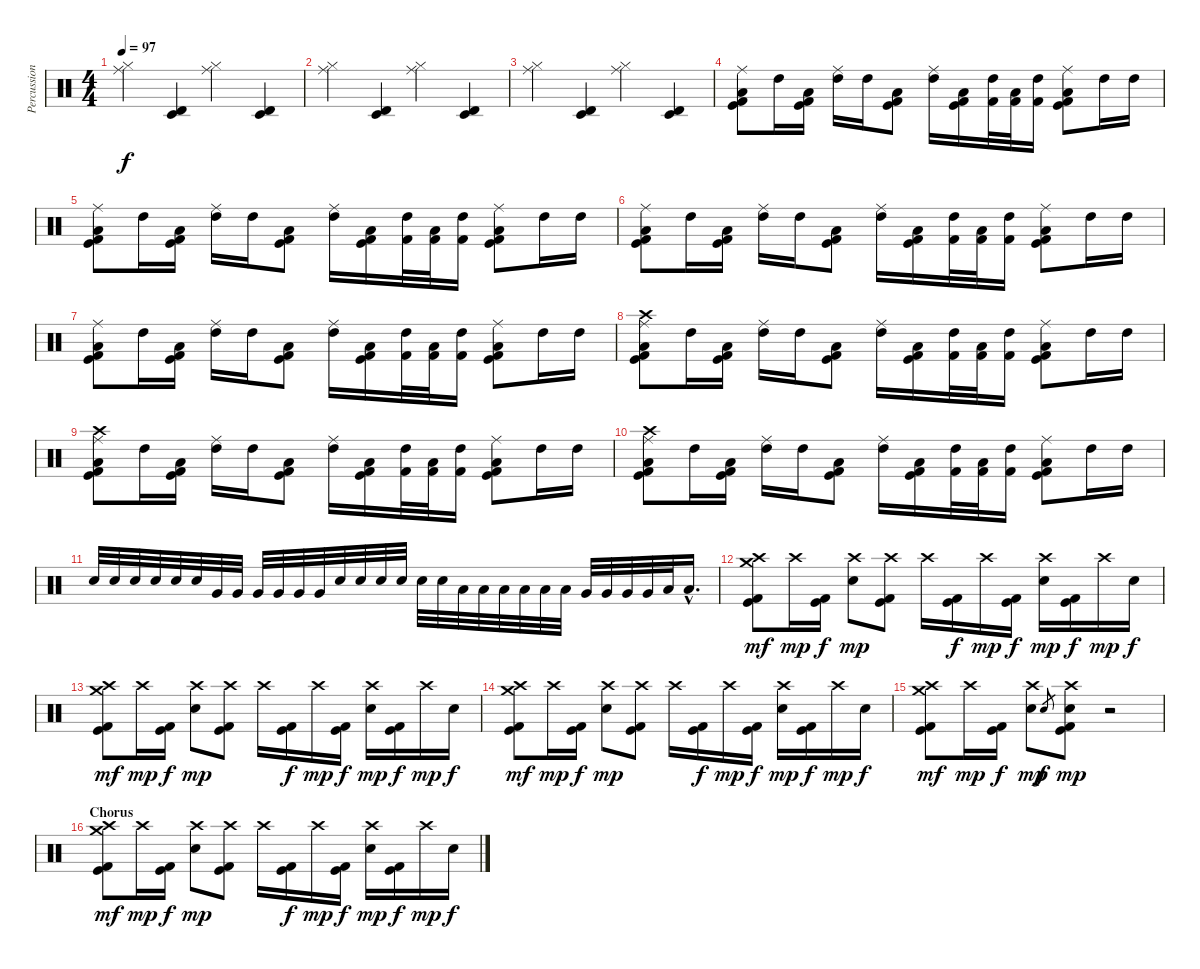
\track ("Percussion - Skinny" "Percussion") {instrument percussion}
\staff {score}
\articulation defaults
\ts (4 4)
\tempo 97
\clef neutral
\ks c
("Ride (middle)" "Hi-Hat (closed)").4{dy f} ("Timbale high (hit)" "Timbale low (hit)").4 ("Ride (middle)" "Hi-Hat (closed)").4 ("Timbale high (hit)" "Timbale low (hit)").4 |
("Ride (middle)" "Hi-Hat (closed)").4 ("Timbale high (hit)" "Timbale low (hit)").4 ("Ride (middle)" "Hi-Hat (closed)").4 ("Timbale high (hit)" "Timbale low (hit)").4 |
("Ride (middle)" "Hi-Hat (closed)").4 ("Timbale high (hit)" "Timbale low (hit)").4 ("Ride (middle)" "Hi-Hat (closed)").4 ("Timbale high (hit)" "Timbale low (hit)").4 |
("Ride (middle)" "Low Floor Tom (hit)" "Kick (hit) 2" "Kick (hit)").8 "High Tom (hit)".16 ("Low Floor Tom (hit)" "Kick (hit) 2" "Kick (hit)").16 ("Ride (middle)" "High Tom (hit)").16 "High Tom (hit)".16 ("Low Floor Tom (hit)" "Kick (hit) 2" "Kick (hit)").8 ("Ride (middle)" "High Tom (hit)").16 ("Low Floor Tom (hit)" "Kick (hit) 2" "Kick (hit)").16 ("High Tom (hit)" "Kick (hit) 2").32 ("Low Floor Tom (hit)" "Kick (hit) 2").32 ("High Tom (hit)" "Kick (hit) 2").16 ("Ride (middle)" "Low Floor Tom (hit)" "Kick (hit) 2" "Kick (hit)").8 "High Tom (hit)".16 "High Tom (hit)".16 |
("Ride (middle)" "Low Floor Tom (hit)" "Kick (hit) 2" "Kick (hit)").8 "High Tom (hit)".16 ("Low Floor Tom (hit)" "Kick (hit) 2" "Kick (hit)").16 ("Ride (middle)" "High Tom (hit)").16 "High Tom (hit)".16 ("Low Floor Tom (hit)" "Kick (hit) 2" "Kick (hit)").8 ("Ride (middle)" "High Tom (hit)").16 ("Low Floor Tom (hit)" "Kick (hit) 2" "Kick (hit)").16 ("High Tom (hit)" "Kick (hit) 2").32 ("Low Floor Tom (hit)" "Kick (hit) 2").32 ("High Tom (hit)" "Kick (hit) 2").16 ("Ride (middle)" "Low Floor Tom (hit)" "Kick (hit) 2" "Kick (hit)").8 "High Tom (hit)".16 "High Tom (hit)".16 |
("Ride (middle)" "Low Floor Tom (hit)" "Kick (hit) 2" "Kick (hit)").8 "High Tom (hit)".16 ("Low Floor Tom (hit)" "Kick (hit) 2" "Kick (hit)").16 ("Ride (middle)" "High Tom (hit)").16 "High Tom (hit)".16 ("Low Floor Tom (hit)" "Kick (hit) 2" "Kick (hit)").8 ("Ride (middle)" "High Tom (hit)").16 ("Low Floor Tom (hit)" "Kick (hit) 2" "Kick (hit)").16 ("High Tom (hit)" "Kick (hit) 2").32 ("Low Floor Tom (hit)" "Kick (hit) 2").32 ("High Tom (hit)" "Kick (hit) 2").16 ("Ride (middle)" "Low Floor Tom (hit)" "Kick (hit) 2" "Kick (hit)").8 "High Tom (hit)".16 "High Tom (hit)".16 |
("Ride (middle)" "Low Floor Tom (hit)" "Kick (hit) 2" "Kick (hit)").8 "High Tom (hit)".16 ("Low Floor Tom (hit)" "Kick (hit) 2" "Kick (hit)").16 ("Ride (middle)" "High Tom (hit)").16 "High Tom (hit)".16 ("Low Floor Tom (hit)" "Kick (hit) 2" "Kick (hit)").8 ("Ride (middle)" "High Tom (hit)").16 ("Low Floor Tom (hit)" "Kick (hit) 2" "Kick (hit)").16 ("High Tom (hit)" "Kick (hit) 2").32 ("Low Floor Tom (hit)" "Kick (hit) 2").32 ("High Tom (hit)" "Kick (hit) 2").16 ("Ride (middle)" "Low Floor Tom (hit)" "Kick (hit) 2" "Kick (hit)").8 "High Tom (hit)".16 "High Tom (hit)".16 |
("Ride (middle)" "Crash high (hit)" "Low Floor Tom (hit)" "Kick (hit) 2" "Kick (hit)").8 "High Tom (hit)".16 ("Low Floor Tom (hit)" "Kick (hit) 2" "Kick (hit)").16 ("Ride (middle)" "High Tom (hit)").16 "High Tom (hit)".16 ("Low Floor Tom (hit)" "Kick (hit) 2" "Kick (hit)").8 ("Ride (middle)" "High Tom (hit)").16 ("Low Floor Tom (hit)" "Kick (hit) 2" "Kick (hit)").16 ("High Tom (hit)" "Kick (hit) 2").32 ("Low Floor Tom (hit)" "Kick (hit) 2").32 ("High Tom (hit)" "Kick (hit) 2").16 ("Ride (middle)" "Low Floor Tom (hit)" "Kick (hit) 2" "Kick (hit)").8 "High Tom (hit)".16 "High Tom (hit)".16 |
("Ride (middle)" "Crash high (hit)" "Low Floor Tom (hit)" "Kick (hit) 2" "Kick (hit)").8 "High Tom (hit)".16 ("Low Floor Tom (hit)" "Kick (hit) 2" "Kick (hit)").16 ("Ride (middle)" "High Tom (hit)").16 "High Tom (hit)".16 ("Low Floor Tom (hit)" "Kick (hit) 2" "Kick (hit)").8 ("Ride (middle)" "High Tom (hit)").16 ("Low Floor Tom (hit)" "Kick (hit) 2" "Kick (hit)").16 ("High Tom (hit)" "Kick (hit) 2").32 ("Low Floor Tom (hit)" "Kick (hit) 2").32 ("High Tom (hit)" "Kick (hit) 2").16 ("Ride (middle)" "Low Floor Tom (hit)" "Kick (hit) 2" "Kick (hit)").8 "High Tom (hit)".16 "High Tom (hit)".16 |
("Ride (middle)" "Crash high (hit)" "Low Floor Tom (hit)" "Kick (hit) 2" "Kick (hit)").8 "High Tom (hit)".16 ("Low Floor Tom (hit)" "Kick (hit) 2" "Kick (hit)").16 ("Ride (middle)" "High Tom (hit)").16 "High Tom (hit)".16 ("Low Floor Tom (hit)" "Kick (hit) 2" "Kick (hit)").8 ("Ride (middle)" "High Tom (hit)").16 ("Low Floor Tom (hit)" "Kick (hit) 2" "Kick (hit)").16 ("High Tom (hit)" "Kick (hit) 2").32 ("Low Floor Tom (hit)" "Kick (hit) 2").32 ("High Tom (hit)" "Kick (hit) 2").16 ("Ride (middle)" "Low Floor Tom (hit)" "Kick (hit) 2" "Kick (hit)").8 "High Tom (hit)".16 "High Tom (hit)".16 |
"Electric Snare (hit)".32 "Electric Snare (hit)".32 "Electric Snare (hit)".32 "Electric Snare (hit)".32 "Electric Snare (hit)".32 "Electric Snare (hit)".32 "Very Low Tom (hit)".32 "Very Low Tom (hit)".32 "Very Low Tom (hit)".32 "Very Low Tom (hit)".32 "Very Low Tom (hit)".32 "Very Low Tom (hit)".32 "Electric Snare (hit)".32 "Electric Snare (hit)".32 "Electric Snare (hit)".32 "Electric Snare (hit)".32 "Electric Snare (hit)".32 "Electric Snare (hit)".32 "Low Tom (hit)".32 "Low Tom (hit)".32 "Low Tom (hit)".32 "Low Tom (hit)".32 "Low Tom (hit)".32 "Low Tom (hit)".32 "Very Low Tom (hit)".32 "Very Low Tom (hit)".32 "Very Low Tom (hit)".32 "Very Low Tom (hit)".32 "Low Floor Tom (hit)".32 "Low Floor Tom (hit)"{hac}.16{d} |
("Crash high (hit)" "Crash medium (hit)" "Kick (hit) 2" "Kick (hit)").8{dy mf} "Crash high (hit)".16{dy mp} ("Kick (hit) 2" "Kick (hit)").16{dy f} ("Crash high (hit)" "Electric Snare (hit)").8{dy mp} ("Crash high (hit)" "Kick (hit) 2" "Kick (hit)").8 "Crash high (hit)".16 ("Kick (hit) 2" "Kick (hit)").16{dy f} "Crash high (hit)".16{dy mp} ("Kick (hit) 2" "Kick (hit)").16{dy f} ("Crash high (hit)" "Electric Snare (hit)").16{dy mp} ("Kick (hit) 2" "Kick (hit)").16{dy f} "Crash high (hit)".16{dy mp} "Electric Snare (hit)".16{dy f} |
("Crash high (hit)" "Crash medium (hit)" "Kick (hit) 2" "Kick (hit)").8{dy mf} "Crash high (hit)".16{dy mp} ("Kick (hit) 2" "Kick (hit)").16{dy f} ("Crash high (hit)" "Electric Snare (hit)").8{dy mp} ("Crash high (hit)" "Kick (hit) 2" "Kick (hit)").8 "Crash high (hit)".16 ("Kick (hit) 2" "Kick (hit)").16{dy f} "Crash high (hit)".16{dy mp} ("Kick (hit) 2" "Kick (hit)").16{dy f} ("Crash high (hit)" "Electric Snare (hit)").16{dy mp} ("Kick (hit) 2" "Kick (hit)").16{dy f} "Crash high (hit)".16{dy mp} "Electric Snare (hit)".16{dy f} |
("Crash high (hit)" "Crash medium (hit)" "Kick (hit) 2" "Kick (hit)").8{dy mf} "Crash high (hit)".16{dy mp} ("Kick (hit) 2" "Kick (hit)").16{dy f} ("Crash high (hit)" "Electric Snare (hit)").8{dy mp} ("Crash high (hit)" "Kick (hit) 2" "Kick (hit)").8 "Crash high (hit)".16 ("Kick (hit) 2" "Kick (hit)").16{dy f} "Crash high (hit)".16{dy mp} ("Kick (hit) 2" "Kick (hit)").16{dy f} ("Crash high (hit)" "Electric Snare (hit)").16{dy mp} ("Kick (hit) 2" "Kick (hit)").16{dy f} "Crash high (hit)".16{dy mp} "Electric Snare (hit)".16{dy f} |
("Crash high (hit)" "Crash medium (hit)" "Kick (hit) 2" "Kick (hit)").8{dy mf} "Crash high (hit)".16{dy mp} ("Kick (hit) 2" "Kick (hit)").16{dy f} ("Crash high (hit)" "Electric Snare (hit)").8{dy mp} "Electric Snare (hit)".8{gr dy f} ("Crash high (hit)" "Electric Snare (hit)" "Kick (hit) 2" "Kick (hit)").8{dy mp} r.2 |
\section ("" "Chorus")
("Crash high (hit)" "Crash medium (hit)" "Kick (hit) 2" "Kick (hit)").8{dy mf} "Crash high (hit)".16{dy mp} ("Kick (hit) 2" "Kick (hit)").16{dy f} ("Crash high (hit)" "Electric Snare (hit)").8{dy mp} ("Crash high (hit)" "Kick (hit) 2" "Kick (hit)").8 "Crash high (hit)".16 ("Kick (hit) 2" "Kick (hit)").16{dy f} "Crash high (hit)".16{dy mp} ("Kick (hit) 2" "Kick (hit)").16{dy f} ("Crash high (hit)" "Electric Snare (hit)").16{dy mp} ("Kick (hit) 2" "Kick (hit)").16{dy f} "Crash high (hit)".16{dy mp} "Electric Snare (hit)".16{dy f}
